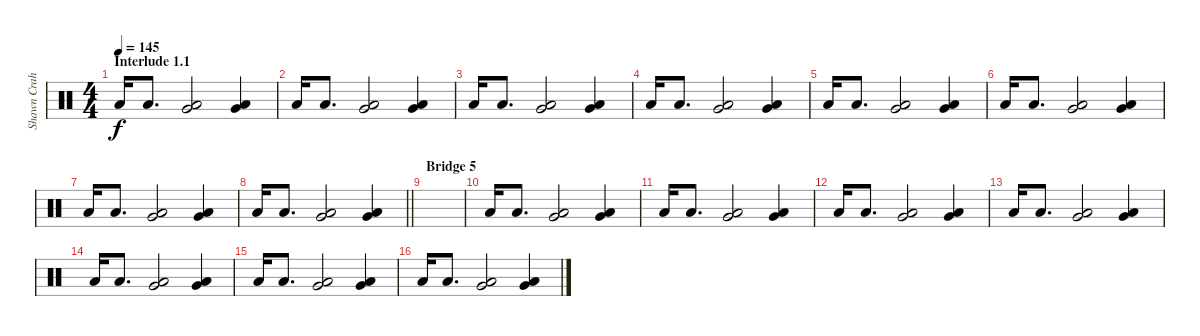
\track ("Shawn Crahan" "Shawn Crah") {instrument percussion}
\staff {score}
\articulation defaults
\ts (4 4)
\section ("" "Interlude 1.1")
\tempo 145
\clef neutral
\ks c "Low Floor Tom (hit)".16{dy f} "Low Floor Tom (hit)".8{d}
("Very Low Tom (hit)" "Low Floor Tom (hit)").2 ("Very Low Tom (hit)" "Low Floor Tom (hit)").4 |
"Low Floor Tom (hit)".16 "Low Floor Tom (hit)".8{d} ("Very Low Tom (hit)" "Low Floor Tom (hit)").2 ("Very Low Tom (hit)" "Low Floor Tom (hit)").4 |
"Low Floor Tom (hit)".16 "Low Floor Tom (hit)".8{d} ("Very Low Tom (hit)" "Low Floor Tom (hit)").2 ("Very Low Tom (hit)" "Low Floor Tom (hit)").4 |
"Low Floor Tom (hit)".16 "Low Floor Tom (hit)".8{d} ("Very Low Tom (hit)" "Low Floor Tom (hit)").2 ("Very Low Tom (hit)" "Low Floor Tom (hit)").4 |
"Low Floor Tom (hit)".16 "Low Floor Tom (hit)".8{d} ("Very Low Tom (hit)" "Low Floor Tom (hit)").2 ("Very Low Tom (hit)" "Low Floor Tom (hit)").4 |
"Low Floor Tom (hit)".16 "Low Floor Tom (hit)".8{d} ("Very Low Tom (hit)" "Low Floor Tom (hit)").2 ("Very Low Tom (hit)" "Low Floor Tom (hit)").4 |
"Low Floor Tom (hit)".16 "Low Floor Tom (hit)".8{d} ("Very Low Tom (hit)" "Low Floor Tom (hit)").2 ("Very Low Tom (hit)" "Low Floor Tom (hit)").4 |
\barLineRight lightlight "Low Floor Tom (hit)".16 "Low Floor Tom (hit)".8{d}
("Very Low Tom (hit)" "Low Floor Tom (hit)").2 ("Very Low Tom (hit)" "Low Floor Tom (hit)").4 |
\section ("" "Bridge 5")
|
"Low Floor Tom (hit)".16 "Low Floor Tom (hit)".8{d} ("Very Low Tom (hit)" "Low Floor Tom (hit)").2 ("Very Low Tom (hit)" "Low Floor Tom (hit)").4 |
"Low Floor Tom (hit)".16 "Low Floor Tom (hit)".8{d} ("Very Low Tom (hit)" "Low Floor Tom (hit)").2 ("Very Low Tom (hit)" "Low Floor Tom (hit)").4 |
"Low Floor Tom (hit)".16 "Low Floor Tom (hit)".8{d} ("Very Low Tom (hit)" "Low Floor Tom (hit)").2 ("Very Low Tom (hit)" "Low Floor Tom (hit)").4 |
"Low Floor Tom (hit)".16 "Low Floor Tom (hit)".8{d} ("Very Low Tom (hit)" "Low Floor Tom (hit)").2 ("Very Low Tom (hit)" "Low Floor Tom (hit)").4 |
"Low Floor Tom (hit)".16 "Low Floor Tom (hit)".8{d} ("Very Low Tom (hit)" "Low Floor Tom (hit)").2 ("Very Low Tom (hit)" "Low Floor Tom (hit)").4 |
"Low Floor Tom (hit)".16 "Low Floor Tom (hit)".8{d} ("Very Low Tom (hit)" "Low Floor Tom (hit)").2 ("Very Low Tom (hit)" "Low Floor Tom (hit)").4 |
"Low Floor Tom (hit)".16 "Low Floor Tom (hit)".8{d} ("Very Low Tom (hit)" "Low Floor Tom (hit)").2 ("Very Low Tom (hit)" "Low Floor Tom (hit)").4
